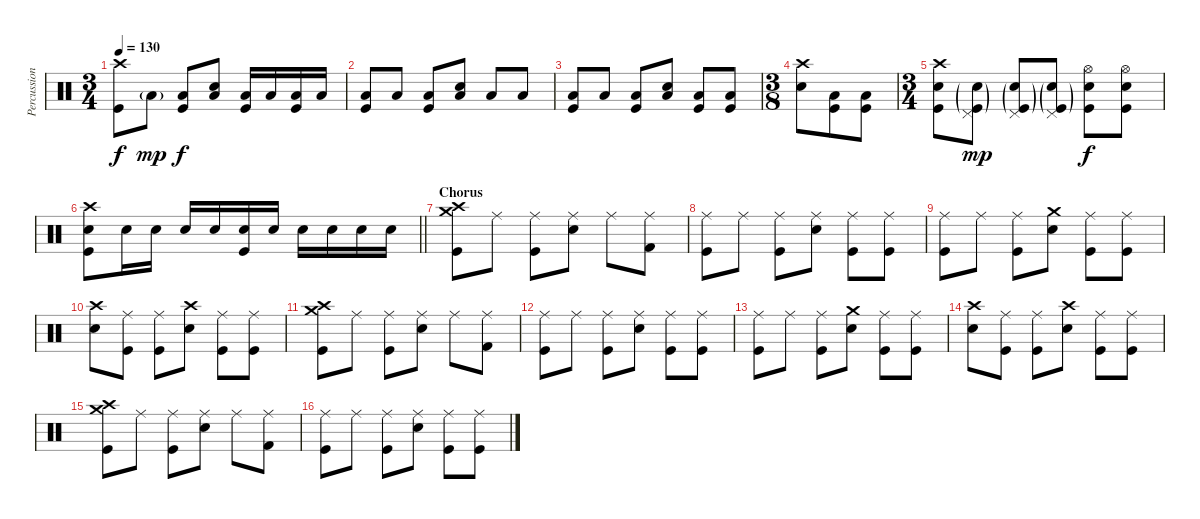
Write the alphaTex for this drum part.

\track ("Percussion" "Percussion") {instrument percussion}
\staff {score}
\articulation defaults
\ts (3 4)
\tempo 130
\clef neutral
\ks c
("Crash high (hit)" "Kick (hit)").8{dy f} "Low Floor Tom (hit)"{g}.8{dy mp} ("Low Floor Tom (hit)" "Kick (hit)").8{dy f} ("Low Floor Tom (hit)" "Snare (hit) 2").8 ("Low Floor Tom (hit)" "Kick (hit)").16 "Low Floor Tom (hit)".16 ("Low Floor Tom (hit)" "Kick (hit)").16 "Low Floor Tom (hit)".16 |
("Low Floor Tom (hit)" "Kick (hit)").8 "Low Floor Tom (hit)".8 ("Low Floor Tom (hit)" "Kick (hit)").8 ("Low Floor Tom (hit)" "Snare (hit) 2").8 "Low Floor Tom (hit)".8 "Low Floor Tom (hit)".8 |
("Low Floor Tom (hit)" "Kick (hit)").8 "Low Floor Tom (hit)".8 ("Low Floor Tom (hit)" "Kick (hit)").8 ("Low Floor Tom (hit)" "Snare (hit) 2").8 ("Low Floor Tom (hit)" "Kick (hit)").8 ("Low Floor Tom (hit)" "Kick (hit)").8 |
\ts (3 8)
("Crash high (hit)" "Snare (hit) 2").8 ("Low Floor Tom (hit)" "Kick (hit)").8 ("Low Floor Tom (hit)" "Kick (hit)").8 |
\ts (3 4)
("Crash high (hit)" "Snare (hit) 2" "Kick (hit)").8 ("Pedal Hi-Hat (hit)" "Snare (hit) 2"{g} "Kick (hit)"{g}).8{dy mp} ("Pedal Hi-Hat (hit)" "Snare (hit) 2"{g} "Kick (hit)"{g}).8 ("Pedal Hi-Hat (hit)" "Snare (hit) 2"{g} "Kick (hit)"{g}).8 ("Hi-Hat (open)" "Snare (hit) 2" "Kick (hit)").8{dy f} ("Hi-Hat (open)" "Snare (hit) 2" "Kick (hit)").8 |
\barLineRight lightlight
("Crash high (hit)" "Snare (hit) 2" "Kick (hit)").8 "Snare (hit) 2".16 "Snare (hit) 2".16 "Snare (hit) 2".16 "Snare (hit) 2".16 ("Snare (hit) 2" "Kick (hit)").16 "Snare (hit) 2".16 "Snare (hit) 2".16 "Snare (hit) 2".16 "Snare (hit) 2".16 "Snare (hit) 2".16 |
\section ("" "Chorus")
("Crash medium (hit)" "Crash high (hit)" "Kick (hit)").8{volume 10} "Ride (middle)".8 ("Ride (middle)" "Kick (hit)").8 ("Ride (middle)" "Snare (hit) 2").8 "Ride (middle)".8 ("Ride (middle)" "Kick (hit) 2").8 |
("Ride (middle)" "Kick (hit)").8 "Ride (middle)".8 ("Ride (middle)" "Kick (hit)").8 ("Ride (middle)" "Snare (hit) 2").8 ("Ride (middle)" "Kick (hit)").8 ("Ride (middle)" "Kick (hit)").8 |
("Ride (middle)" "Kick (hit)").8 "Ride (middle)".8 ("Ride (middle)" "Kick (hit)").8 ("Crash medium (hit)" "Snare (hit) 2").8 ("Ride (middle)" "Kick (hit)").8 ("Ride (middle)" "Kick (hit)").8 |
("Crash high (hit)" "Snare (hit) 2").8 ("Ride (middle)" "Kick (hit)").8 ("Ride (middle)" "Kick (hit)").8 ("Crash high (hit)" "Snare (hit) 2").8 ("Ride (middle)" "Kick (hit)").8 ("Ride (middle)" "Kick (hit)").8 |
("Crash medium (hit)" "Crash high (hit)" "Kick (hit)").8 "Ride (middle)".8 ("Ride (middle)" "Kick (hit)").8 ("Ride (middle)" "Snare (hit) 2").8 "Ride (middle)".8 ("Ride (middle)" "Kick (hit) 2").8 |
("Ride (middle)" "Kick (hit)").8 "Ride (middle)".8 ("Ride (middle)" "Kick (hit)").8 ("Ride (middle)" "Snare (hit) 2").8 ("Ride (middle)" "Kick (hit)").8 ("Ride (middle)" "Kick (hit)").8 |
("Ride (middle)" "Kick (hit)").8 "Ride (middle)".8 ("Ride (middle)" "Kick (hit)").8 ("Crash medium (hit)" "Snare (hit) 2").8 ("Ride (middle)" "Kick (hit)").8 ("Ride (middle)" "Kick (hit)").8 |
("Crash high (hit)" "Snare (hit) 2").8 ("Ride (middle)" "Kick (hit)").8 ("Ride (middle)" "Kick (hit)").8 ("Crash high (hit)" "Snare (hit) 2").8 ("Ride (middle)" "Kick (hit)").8 ("Ride (middle)" "Kick (hit)").8 |
("Crash medium (hit)" "Crash high (hit)" "Kick (hit)").8 "Ride (middle)".8 ("Ride (middle)" "Kick (hit)").8 ("Ride (middle)" "Snare (hit) 2").8 "Ride (middle)".8 ("Ride (middle)" "Kick (hit) 2").8 |
("Ride (middle)" "Kick (hit)").8 "Ride (middle)".8 ("Ride (middle)" "Kick (hit)").8 ("Ride (middle)" "Snare (hit) 2").8 ("Ride (middle)" "Kick (hit)").8 ("Ride (middle)" "Kick (hit)").8
